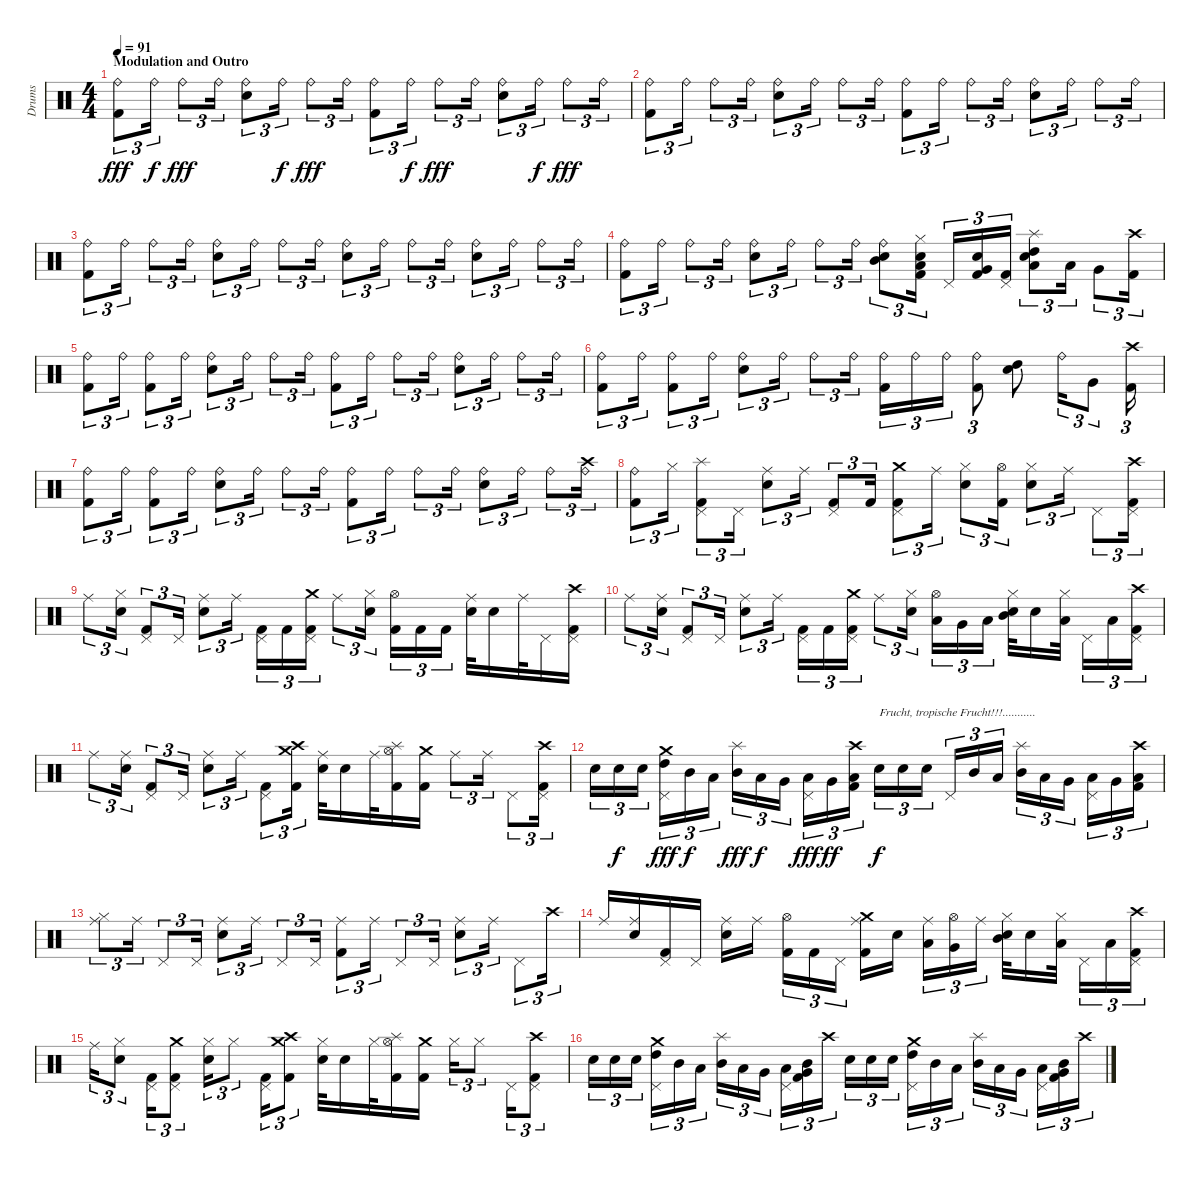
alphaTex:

\track ("Drums" "Drums") {instrument percussion}
\staff {score}
\articulation defaults
\ts (4 4)
\section ("" "Modulation and Outro")
\tempo 91
\clef neutral
\ks c
("Ride (bell)" "Kick (hit) 2").8{tu (3 2) dy fff} "Ride (bell)".16{tu (3 2) dy f} "Ride (bell)".8{tu (3 2) dy fff} "Ride (bell)".16{tu (3 2)} ("Ride (bell)" "Snare (hit) 2").8{tu (3 2)} "Ride (bell)".16{tu (3 2) dy f} "Ride (bell)".8{tu (3 2) dy fff} "Ride (bell)".16{tu (3 2)} ("Ride (bell)" "Kick (hit) 2").8{tu (3 2)} "Ride (bell)".16{tu (3 2) dy f} "Ride (bell)".8{tu (3 2) dy fff} "Ride (bell)".16{tu (3 2)} ("Ride (bell)" "Snare (hit) 2").8{tu (3 2)} "Ride (bell)".16{tu (3 2) dy f} "Ride (bell)".8{tu (3 2) dy fff} "Ride (bell)".16{tu (3 2)} |
("Ride (bell)" "Kick (hit) 2").8{tu (3 2)} "Ride (bell)".16{tu (3 2)} "Ride (bell)".8{tu (3 2)} "Ride (bell)".16{tu (3 2)} ("Ride (bell)" "Snare (hit) 2").8{tu (3 2)} "Ride (bell)".16{tu (3 2)} "Ride (bell)".8{tu (3 2)} "Ride (bell)".16{tu (3 2)} ("Ride (bell)" "Kick (hit) 2").8{tu (3 2)} "Ride (bell)".16{tu (3 2)} "Ride (bell)".8{tu (3 2)} "Ride (bell)".16{tu (3 2)} ("Ride (bell)" "Snare (hit) 2").8{tu (3 2)} "Ride (bell)".16{tu (3 2)} "Ride (bell)".8{tu (3 2)} "Ride (bell)".16{tu (3 2)} |
("Ride (bell)" "Kick (hit) 2").8{tu (3 2)} "Ride (bell)".16{tu (3 2)} "Ride (bell)".8{tu (3 2)} "Ride (bell)".16{tu (3 2)} ("Ride (bell)" "Snare (hit) 2").8{tu (3 2)} "Ride (bell)".16{tu (3 2)} "Ride (bell)".8{tu (3 2)} "Ride (bell)".16{tu (3 2)} ("Ride (bell)" "Snare (hit) 2").8{tu (3 2)} "Ride (bell)".16{tu (3 2)} "Ride (bell)".8{tu (3 2)} "Ride (bell)".16{tu (3 2)} ("Ride (bell)" "Snare (hit) 2").8{tu (3 2)} "Ride (bell)".16{tu (3 2)} "Ride (bell)".8{tu (3 2)} "Ride (bell)".16{tu (3 2)} |
("Ride (bell)" "Kick (hit) 2").8{tu (3 2)} "Ride (bell)".16{tu (3 2)} "Ride (bell)".8{tu (3 2)} "Ride (bell)".16{tu (3 2)} ("Ride (bell)" "Snare (hit) 2").8{tu (3 2)} "Ride (bell)".16{tu (3 2)} "Ride (bell)".8{tu (3 2)} "Ride (bell)".16{tu (3 2)} ("Mid Tom (hit)" "Snare (hit) 2" "Ride (bell)").8{tu (3 2)} ("Low Tom (hit)" "Kick (hit) 2" "Electric Snare (hit)" "Hi-Hat (closed)").16{tu (3 2)} "Pedal Hi-Hat (hit)".16{tu (3 2)} ("Very Low Tom (hit)" "Kick (hit) 2" "Electric Snare (hit)").16{tu (3 2)} ("Kick (hit) 2" "Pedal Hi-Hat (hit)").16{tu (3 2)} ("Splash (hit)" "Low Floor Tom (hit)" "Snare (hit) 2" "High Tom (hit)").8{tu (3 2)} "Low Tom (hit)".16{tu (3 2)} "Very Low Tom (hit)".8{tu (3 2)} ("Crash high (hit)" "Kick (hit) 2").16{tu (3 2)} |
("Ride (bell)" "Kick (hit) 2").8{tu (3 2)} "Ride (bell)".16{tu (3 2)} ("Ride (bell)" "Kick (hit) 2").8{tu (3 2)} "Ride (bell)".16{tu (3 2)} ("Ride (bell)" "Snare (hit) 2").8{tu (3 2)} "Ride (bell)".16{tu (3 2)} "Ride (bell)".8{tu (3 2)} "Ride (bell)".16{tu (3 2)} ("Ride (bell)" "Kick (hit) 2").8{tu (3 2)} "Ride (bell)".16{tu (3 2)} "Ride (bell)".8{tu (3 2)} "Ride (bell)".16{tu (3 2)} ("Ride (bell)" "Snare (hit) 2").8{tu (3 2)} "Ride (bell)".16{tu (3 2)} "Ride (bell)".8{tu (3 2)} "Ride (bell)".16{tu (3 2)} |
("Ride (bell)" "Kick (hit) 2").8{tu (3 2)} "Ride (bell)".16{tu (3 2)} ("Ride (bell)" "Kick (hit) 2").8{tu (3 2)} "Ride (bell)".16{tu (3 2)} ("Ride (bell)" "Snare (hit) 2").8{tu (3 2)} "Ride (bell)".16{tu (3 2)} "Ride (bell)".8{tu (3 2)} "Ride (bell)".16{tu (3 2)} ("Kick (hit) 2" "Ride (bell)").16{tu (3 2)} "Ride (bell)".16{tu (3 2)} "Ride (bell)".16{tu (3 2)} ("Kick (hit) 2" "Ride (bell)").8{tu (3 2)} ("Snare (hit) 2" "High Tom (hit)").8 "Ride (bell)".16{tu (3 2)} "Very Low Tom (hit)".8{tu (3 2)} ("Crash high (hit)" "Kick (hit) 2").16{tu (3 2)} |
("Ride (bell)" "Kick (hit) 2").8{tu (3 2)} "Ride (bell)".16{tu (3 2)} ("Ride (bell)" "Kick (hit) 2").8{tu (3 2)} "Ride (bell)".16{tu (3 2)} ("Ride (bell)" "Snare (hit) 2").8{tu (3 2)} "Ride (bell)".16{tu (3 2)} "Ride (bell)".8{tu (3 2)} "Ride (bell)".16{tu (3 2)} ("Ride (bell)" "Kick (hit) 2").8{tu (3 2)} "Ride (bell)".16{tu (3 2)} "Ride (bell)".8{tu (3 2)} "Ride (bell)".16{tu (3 2)} ("Ride (bell)" "Snare (hit) 2").8{tu (3 2)} "Ride (bell)".16{tu (3 2)} "Ride (bell)".8{tu (3 2)} ("Crash high (hit)" "Ride (bell)").16{tu (3 2)} |
("Ride (bell)" "Kick (hit) 2").8{tu (3 2)} "Hi-Hat (closed)".16{tu (3 2)} ("Splash (hit)" "Pedal Hi-Hat (hit)" "Kick (hit) 2").8{tu (3 2)} "Pedal Hi-Hat (hit)".16{tu (3 2)} ("Ride (middle)" "Snare (hit) 2").8{tu (3 2)} "Ride (middle)".16{tu (3 2)} ("Pedal Hi-Hat (hit)" "Kick (hit) 2").8{tu (3 2)} "Kick (hit) 2".16{tu (3 2)} ("Pedal Hi-Hat (hit)" "Crash medium (hit)" "Kick (hit) 2").8{tu (3 2)} "Ride (middle)".16{tu (3 2)} ("Snare (hit) 2" "Hi-Hat (closed)").8{tu (3 2)} ("Hi-Hat (open)" "Kick (hit) 2").16{tu (3 2)} ("Snare (hit) 2" "Hi-Hat (closed)").8{tu (3 2)} "Ride (middle)".16{tu (3 2)} "Pedal Hi-Hat (hit)".8{tu (3 2)} ("Crash high (hit)" "Kick (hit) 2" "Pedal Hi-Hat (hit)").16{tu (3 2)} |
"Ride (middle)".8{tu (3 2)} ("Electric Snare (hit)" "Hi-Hat (closed)").16{tu (3 2)} ("Pedal Hi-Hat (hit)" "Kick (hit) 2").8{tu (3 2)} "Pedal Hi-Hat (hit)".16{tu (3 2)} ("Ride (middle)" "Snare (hit) 2").8{tu (3 2)} "Ride (middle)".16{tu (3 2)} ("Pedal Hi-Hat (hit)" "Kick (hit) 2").16{tu (3 2)} "Kick (hit) 2".16{tu (3 2)} ("Pedal Hi-Hat (hit)" "Crash medium (hit)" "Kick (hit) 2").16{tu (3 2)} "Ride (middle)".8{tu (3 2)} ("Electric Snare (hit)" "Hi-Hat (closed)").16{tu (3 2)} ("Kick (hit) 2" "Hi-Hat (open)").16{tu (3 2)} "Kick (hit) 2".16{tu (3 2)} "Kick (hit) 2".16{tu (3 2)} ("Snare (hit) 2" "Ride (middle)").32 "Snare (hit) 2".16 "Ride (middle)".32 "Pedal Hi-Hat (hit)".16 ("Crash high (hit)" "Kick (hit) 2" "Pedal Hi-Hat (hit)").16 |
"Ride (middle)".8{tu (3 2)} ("Electric Snare (hit)" "Ride (middle)").16{tu (3 2)} ("Pedal Hi-Hat (hit)" "Kick (hit) 2").8{tu (3 2)} "Pedal Hi-Hat (hit)".16{tu (3 2)} ("Ride (middle)" "Snare (hit) 2").8{tu (3 2)} "Ride (middle)".16{tu (3 2)} ("Pedal Hi-Hat (hit)" "Kick (hit) 2").16{tu (3 2)} "Kick (hit) 2".16{tu (3 2)} ("Pedal Hi-Hat (hit)" "Crash medium (hit)" "Kick (hit) 2").16{tu (3 2)} "Ride (middle)".8{tu (3 2)} ("Snare (hit) 2" "Hi-Hat (closed)").16{tu (3 2)} ("Low Tom (hit)" "Hi-Hat (open)").16{tu (3 2)} "Very Low Tom (hit)".16{tu (3 2)} "Low Floor Tom (hit)".16{tu (3 2)} ("Mid Tom (hit)" "Snare (hit) 2" "Hi-Hat (closed)").32 "Snare (hit) 2".16 ("Low Tom (hit)" "Hi-Hat (closed)").32 "Pedal Hi-Hat (hit)".16{tu (3 2)} "Low Floor Tom (hit)".16{tu (3 2)} ("Crash high (hit)" "Kick (hit) 2" "Pedal Hi-Hat (hit)").16{tu (3 2)} |
"Ride (middle)".8{tu (3 2)} ("Snare (hit) 2" "Ride (middle)").16{tu (3 2)} ("Pedal Hi-Hat (hit)" "Kick (hit) 2").8{tu (3 2)} "Pedal Hi-Hat (hit)".16{tu (3 2)} ("Ride (middle)" "Electric Snare (hit)").8{tu (3 2)} "Ride (middle)".16{tu (3 2)} ("Pedal Hi-Hat (hit)" "Kick (hit) 2").8{tu (3 2)} ("Crash high (hit)" "Crash medium (hit)" "Kick (hit) 2").16{tu (3 2)} ("Snare (hit) 2" "Ride (middle)").32 "Snare (hit) 2".16 "Ride (middle)".32 ("Splash (hit)" "Kick (hit) 2" "Hi-Hat (open)").16 ("Crash medium (hit)" "Kick (hit) 2").16 "Ride (middle)".8{tu (3 2)} "Ride (middle)".16{tu (3 2)} "Pedal Hi-Hat (hit)".8{tu (3 2)} ("Crash high (hit)" "Kick (hit) 2" "Pedal Hi-Hat (hit)").16{tu (3 2)} |
"Snare (hit) 2".16{tu (3 2)} "Snare (hit) 2".16{tu (3 2) dy f} "Snare (hit) 2".16{tu (3 2)} ("Pedal Hi-Hat (hit)" "Crash medium (hit)" "High Tom (hit)").16{tu (3 2) dy fff} "Mid Tom (hit)".16{tu (3 2) dy f} "Low Tom (hit)".16{tu (3 2)} ("Splash (hit)" "Mid Tom (hit)").16{tu (3 2) dy fff} "Low Tom (hit)".16{tu (3 2) dy f} "Very Low Tom (hit)".16{tu (3 2)} ("Pedal Hi-Hat (hit)" "Low Tom (hit)").16{tu (3 2) dy fff} "Very Low Tom (hit)".16{tu (3 2) dy ff} ("Crash high (hit)" "Kick (hit) 2" "Low Floor Tom (hit)").16{tu (3 2)} "Snare (hit) 2".16{tu (3 2) txt "Frucht, tropische Frucht!!!..........." dy f} "Snare (hit) 2".16{tu (3 2)} "Snare (hit) 2".16{tu (3 2)} "Pedal Hi-Hat (hit)".16{tu (3 2)} "Mid Tom (hit)".16{tu (3 2)} "Low Tom (hit)".16{tu (3 2)} ("Splash (hit)" "Mid Tom (hit)").16{tu (3 2)} "Low Tom (hit)".16{tu (3 2)} "Very Low Tom (hit)".16{tu (3 2)} ("Pedal Hi-Hat (hit)" "Low Tom (hit)").16{tu (3 2)} "Very Low Tom (hit)".16{tu (3 2)} ("Crash high (hit)" "Kick (hit) 2" "Low Floor Tom (hit)").16{tu (3 2)} |
("Ride (middle)" "Hi-Hat (closed)").8{tu (3 2)} "Ride (middle)".16{tu (3 2)} "Pedal Hi-Hat (hit)".8{tu (3 2)} "Pedal Hi-Hat (hit)".16{tu (3 2)} ("Snare (hit) 2" "Ride (middle)").8{tu (3 2)} "Ride (middle)".16{tu (3 2)} "Pedal Hi-Hat (hit)".8{tu (3 2)} "Pedal Hi-Hat (hit)".16{tu (3 2)} ("Kick (hit) 2" "Ride (middle)").8{tu (3 2)} "Ride (middle)".16{tu (3 2)} "Pedal Hi-Hat (hit)".8{tu (3 2)} "Pedal Hi-Hat (hit)".16{tu (3 2)} ("Snare (hit) 2" "Ride (middle)").8{tu (3 2)} "Ride (middle)".16{tu (3 2)} "Pedal Hi-Hat (hit)".8{tu (3 2)} "Crash high (hit)".16{tu (3 2)} |
"Ride (middle)".16 ("Snare (hit) 2" "Ride (middle)").16 ("Pedal Hi-Hat (hit)" "Kick (hit) 2").16 "Pedal Hi-Hat (hit)".16 ("Ride (middle)" "Snare (hit) 2").16 "Ride (middle)".16 ("Hi-Hat (open)" "Kick (hit) 2").16{tu (3 2)} "Kick (hit) 2".16{tu (3 2)} "Pedal Hi-Hat (hit)".16{tu (3 2)} ("Ride (middle)" "Crash medium (hit)" "Kick (hit) 2").16 "Snare (hit) 2".16 ("Low Tom (hit)" "Ride (middle)").16{tu (3 2)} ("Very Low Tom (hit)" "Hi-Hat (open)").16{tu (3 2)} "Ride (middle)".16{tu (3 2)} ("Mid Tom (hit)" "Snare (hit) 2" "Hi-Hat (closed)").32 "Snare (hit) 2".16 ("Low Tom (hit)" "Hi-Hat (closed)").32 "Pedal Hi-Hat (hit)".16{tu (3 2)} "Low Floor Tom (hit)".16{tu (3 2)} ("Crash high (hit)" "Kick (hit) 2" "Pedal Hi-Hat (hit)").16{tu (3 2)} |
"Ride (middle)".16{tu (3 2)} ("Snare (hit) 2" "Hi-Hat (closed)").8{tu (3 2)} ("Pedal Hi-Hat (hit)" "Kick (hit) 2").16{tu (3 2)} ("Pedal Hi-Hat (hit)" "Crash medium (hit)" "Kick (hit) 2").8{tu (3 2)} ("Hi-Hat (closed)" "Snare (hit) 2").16{tu (3 2)} "Hi-Hat (closed)".8{tu (3 2)} ("Pedal Hi-Hat (hit)" "Kick (hit) 2").16{tu (3 2)} ("Crash high (hit)" "Crash medium (hit)" "Kick (hit) 2").8{tu (3 2)} ("Snare (hit) 2" "Hi-Hat (closed)").32 "Snare (hit) 2".16 "Hi-Hat (closed)".32 ("Splash (hit)" "Kick (hit) 2" "Hi-Hat (open)").16 ("Crash medium (hit)" "Kick (hit) 2").16 "Hi-Hat (closed)".16{tu (3 2)} "Hi-Hat (closed)".8{tu (3 2)} "Pedal Hi-Hat (hit)".16{tu (3 2)} ("Crash high (hit)" "Kick (hit) 2" "Pedal Hi-Hat (hit)").8{tu (3 2)} |
"Snare (hit) 2".16{tu (3 2)} "Snare (hit) 2".16{tu (3 2)} "Snare (hit) 2".16{tu (3 2)} ("Pedal Hi-Hat (hit)" "Crash medium (hit)" "High Tom (hit)").16{tu (3 2)} "Mid Tom (hit)".16{tu (3 2)} "Low Tom (hit)".16{tu (3 2)} ("Splash (hit)" "Mid Tom (hit)").16{tu (3 2)} "Low Tom (hit)".16{tu (3 2)} "Very Low Tom (hit)".16{tu (3 2)} ("Pedal Hi-Hat (hit)" "Low Tom (hit)").16{tu (3 2)} ("Very Low Tom (hit)" "Kick (hit) 2" "Mid Tom (hit)").16{tu (3 2)} "Crash high (hit)".16{tu (3 2)} "Snare (hit) 2".16{tu (3 2)} "Snare (hit) 2".16{tu (3 2)} "Snare (hit) 2".16{tu (3 2)} ("Pedal Hi-Hat (hit)" "Crash medium (hit)" "High Tom (hit)").16{tu (3 2)} "Mid Tom (hit)".16{tu (3 2)} "Low Tom (hit)".16{tu (3 2)} ("Splash (hit)" "Mid Tom (hit)").16{tu (3 2)} "Low Tom (hit)".16{tu (3 2)} "Very Low Tom (hit)".16{tu (3 2)} ("Pedal Hi-Hat (hit)" "Low Tom (hit)").16{tu (3 2)} ("Very Low Tom (hit)" "Kick (hit) 2" "Mid Tom (hit)").16{tu (3 2)} "Crash high (hit)".16{tu (3 2)}
